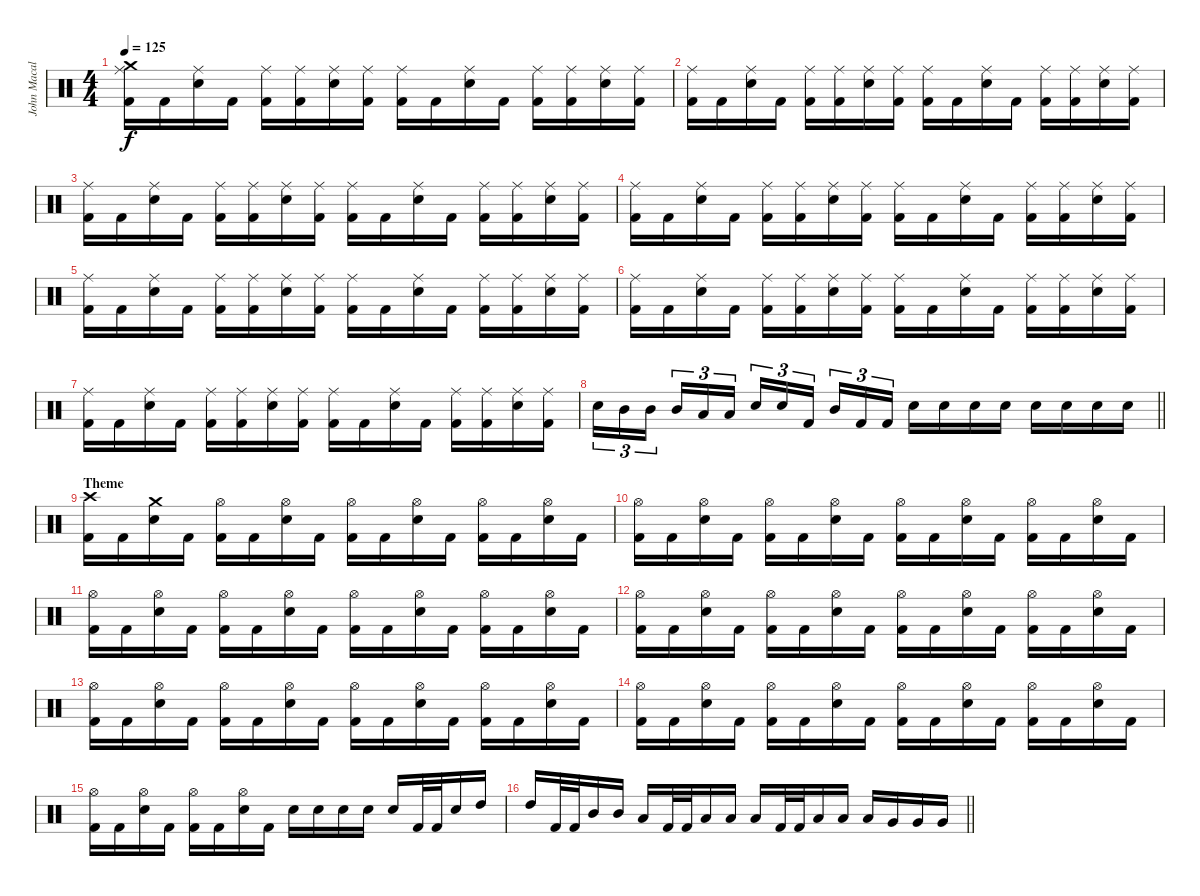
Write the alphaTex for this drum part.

\track ("John Macaluso " "John Macal") {instrument percussion}
\staff {score}
\articulation defaults
\ts (4 4)
\tempo 125
\clef neutral
\ks c
("Crash medium (hit)" "Ride (middle)" "Kick (hit) 2").16{dy f} "Kick (hit) 2".16 ("Ride (middle)" "Snare (hit) 2").16 "Kick (hit) 2".16 ("Ride (middle)" "Kick (hit) 2").16 ("Ride (middle)" "Kick (hit) 2").16 ("Ride (middle)" "Snare (hit) 2").16 ("Ride (middle)" "Kick (hit) 2").16 ("Ride (middle)" "Kick (hit) 2").16 "Kick (hit) 2".16 ("Ride (middle)" "Snare (hit) 2").16 "Kick (hit) 2".16 ("Ride (middle)" "Kick (hit) 2").16 ("Ride (middle)" "Kick (hit) 2").16 ("Ride (middle)" "Snare (hit) 2").16 ("Ride (middle)" "Kick (hit) 2").16 |
("Ride (middle)" "Kick (hit) 2").16 "Kick (hit) 2".16 ("Ride (middle)" "Snare (hit) 2").16 "Kick (hit) 2".16 ("Ride (middle)" "Kick (hit) 2").16 ("Ride (middle)" "Kick (hit) 2").16 ("Ride (middle)" "Snare (hit) 2").16 ("Ride (middle)" "Kick (hit) 2").16 ("Ride (middle)" "Kick (hit) 2").16 "Kick (hit) 2".16 ("Ride (middle)" "Snare (hit) 2").16 "Kick (hit) 2".16 ("Ride (middle)" "Kick (hit) 2").16 ("Ride (middle)" "Kick (hit) 2").16 ("Ride (middle)" "Snare (hit) 2").16 ("Ride (middle)" "Kick (hit) 2").16 |
("Ride (middle)" "Kick (hit) 2").16 "Kick (hit) 2".16 ("Ride (middle)" "Snare (hit) 2").16 "Kick (hit) 2".16 ("Ride (middle)" "Kick (hit) 2").16 ("Ride (middle)" "Kick (hit) 2").16 ("Ride (middle)" "Snare (hit) 2").16 ("Ride (middle)" "Kick (hit) 2").16 ("Ride (middle)" "Kick (hit) 2").16 "Kick (hit) 2".16 ("Ride (middle)" "Snare (hit) 2").16 "Kick (hit) 2".16 ("Ride (middle)" "Kick (hit) 2").16 ("Ride (middle)" "Kick (hit) 2").16 ("Ride (middle)" "Snare (hit) 2").16 ("Ride (middle)" "Kick (hit) 2").16 |
("Ride (middle)" "Kick (hit) 2").16 "Kick (hit) 2".16 ("Ride (middle)" "Snare (hit) 2").16 "Kick (hit) 2".16 ("Ride (middle)" "Kick (hit) 2").16 ("Ride (middle)" "Kick (hit) 2").16 ("Ride (middle)" "Snare (hit) 2").16 ("Ride (middle)" "Kick (hit) 2").16 ("Ride (middle)" "Kick (hit) 2").16 "Kick (hit) 2".16 ("Ride (middle)" "Snare (hit) 2").16 "Kick (hit) 2".16 ("Ride (middle)" "Kick (hit) 2").16 ("Ride (middle)" "Kick (hit) 2").16 ("Ride (middle)" "Snare (hit) 2").16 ("Ride (middle)" "Kick (hit) 2").16 |
("Ride (middle)" "Kick (hit) 2").16 "Kick (hit) 2".16 ("Ride (middle)" "Snare (hit) 2").16 "Kick (hit) 2".16 ("Ride (middle)" "Kick (hit) 2").16 ("Ride (middle)" "Kick (hit) 2").16 ("Ride (middle)" "Snare (hit) 2").16 ("Ride (middle)" "Kick (hit) 2").16 ("Ride (middle)" "Kick (hit) 2").16 "Kick (hit) 2".16 ("Ride (middle)" "Snare (hit) 2").16 "Kick (hit) 2".16 ("Ride (middle)" "Kick (hit) 2").16 ("Ride (middle)" "Kick (hit) 2").16 ("Ride (middle)" "Snare (hit) 2").16 ("Ride (middle)" "Kick (hit) 2").16 |
("Ride (middle)" "Kick (hit) 2").16 "Kick (hit) 2".16 ("Ride (middle)" "Snare (hit) 2").16 "Kick (hit) 2".16 ("Ride (middle)" "Kick (hit) 2").16 ("Ride (middle)" "Kick (hit) 2").16 ("Ride (middle)" "Snare (hit) 2").16 ("Ride (middle)" "Kick (hit) 2").16 ("Ride (middle)" "Kick (hit) 2").16 "Kick (hit) 2".16 ("Ride (middle)" "Snare (hit) 2").16 "Kick (hit) 2".16 ("Ride (middle)" "Kick (hit) 2").16 ("Ride (middle)" "Kick (hit) 2").16 ("Ride (middle)" "Snare (hit) 2").16 ("Ride (middle)" "Kick (hit) 2").16 |
("Ride (middle)" "Kick (hit) 2").16 "Kick (hit) 2".16 ("Ride (middle)" "Snare (hit) 2").16 "Kick (hit) 2".16 ("Ride (middle)" "Kick (hit) 2").16 ("Ride (middle)" "Kick (hit) 2").16 ("Ride (middle)" "Snare (hit) 2").16 ("Ride (middle)" "Kick (hit) 2").16 ("Ride (middle)" "Kick (hit) 2").16 "Kick (hit) 2".16 ("Ride (middle)" "Snare (hit) 2").16 "Kick (hit) 2".16 ("Ride (middle)" "Kick (hit) 2").16 ("Ride (middle)" "Kick (hit) 2").16 ("Ride (middle)" "Snare (hit) 2").16 ("Ride (middle)" "Kick (hit) 2").16 |
\barLineRight lightlight "Snare (hit) 2".16{tu (3 2)} "Mid Tom (hit)".16{tu (3 2)} "Mid Tom (hit)".16{tu (3 2) beam splitsecondary} "Mid Tom (hit)".16{tu (3 2)} "Low Tom (hit)".16{tu (3 2)} "Low Tom (hit)".16{tu (3 2)} "Snare (hit) 2".16{tu (3 2)} "Snare (hit) 2".16{tu (3 2)} "Kick (hit) 2".16{tu (3 2) beam splitsecondary} "Mid Tom (hit)".16{tu (3 2)} "Kick (hit) 2".16{tu (3 2)} "Kick (hit) 2".16{tu (3 2)} "Snare (hit) 2".16 "Snare (hit) 2".16 "Snare (hit) 2".16 "Snare (hit) 2".16 "Snare (hit) 2".16 "Snare (hit) 2".16 "Snare (hit) 2".16 "Snare (hit) 2".16
|
\section ("" "Theme")
("Crash high (hit)" "Kick (hit) 2").16 "Kick (hit) 2".16 ("Crash medium (hit)" "Snare (hit) 2").16 "Kick (hit) 2".16 ("Hi-Hat (open)" "Kick (hit) 2").16 "Kick (hit) 2".16 ("Hi-Hat (open)" "Snare (hit) 2").16 "Kick (hit) 2".16 ("Hi-Hat (open)" "Kick (hit) 2").16 "Kick (hit) 2".16 ("Hi-Hat (open)" "Snare (hit) 2").16 "Kick (hit) 2".16 ("Hi-Hat (open)" "Kick (hit) 2").16 "Kick (hit) 2".16 ("Hi-Hat (open)" "Snare (hit) 2").16 "Kick (hit) 2".16 |
("Hi-Hat (open)" "Kick (hit) 2").16 "Kick (hit) 2".16 ("Hi-Hat (open)" "Snare (hit) 2").16 "Kick (hit) 2".16 ("Hi-Hat (open)" "Kick (hit) 2").16 "Kick (hit) 2".16 ("Hi-Hat (open)" "Snare (hit) 2").16 "Kick (hit) 2".16 ("Hi-Hat (open)" "Kick (hit) 2").16 "Kick (hit) 2".16 ("Hi-Hat (open)" "Snare (hit) 2").16 "Kick (hit) 2".16 ("Hi-Hat (open)" "Kick (hit) 2").16 "Kick (hit) 2".16 ("Hi-Hat (open)" "Snare (hit) 2").16 "Kick (hit) 2".16 |
("Hi-Hat (open)" "Kick (hit) 2").16 "Kick (hit) 2".16 ("Hi-Hat (open)" "Snare (hit) 2").16 "Kick (hit) 2".16 ("Hi-Hat (open)" "Kick (hit) 2").16 "Kick (hit) 2".16 ("Hi-Hat (open)" "Snare (hit) 2").16 "Kick (hit) 2".16 ("Hi-Hat (open)" "Kick (hit) 2").16 "Kick (hit) 2".16 ("Hi-Hat (open)" "Snare (hit) 2").16 "Kick (hit) 2".16 ("Hi-Hat (open)" "Kick (hit) 2").16 "Kick (hit) 2".16 ("Hi-Hat (open)" "Snare (hit) 2").16 "Kick (hit) 2".16 |
("Hi-Hat (open)" "Kick (hit) 2").16 "Kick (hit) 2".16 ("Hi-Hat (open)" "Snare (hit) 2").16 "Kick (hit) 2".16 ("Hi-Hat (open)" "Kick (hit) 2").16 "Kick (hit) 2".16 ("Hi-Hat (open)" "Snare (hit) 2").16 "Kick (hit) 2".16 ("Hi-Hat (open)" "Kick (hit) 2").16 "Kick (hit) 2".16 ("Hi-Hat (open)" "Snare (hit) 2").16 "Kick (hit) 2".16 ("Hi-Hat (open)" "Kick (hit) 2").16 "Kick (hit) 2".16 ("Hi-Hat (open)" "Snare (hit) 2").16 "Kick (hit) 2".16 |
("Hi-Hat (open)" "Kick (hit) 2").16 "Kick (hit) 2".16 ("Hi-Hat (open)" "Snare (hit) 2").16 "Kick (hit) 2".16 ("Hi-Hat (open)" "Kick (hit) 2").16 "Kick (hit) 2".16 ("Hi-Hat (open)" "Snare (hit) 2").16 "Kick (hit) 2".16 ("Hi-Hat (open)" "Kick (hit) 2").16 "Kick (hit) 2".16 ("Hi-Hat (open)" "Snare (hit) 2").16 "Kick (hit) 2".16 ("Hi-Hat (open)" "Kick (hit) 2").16 "Kick (hit) 2".16 ("Hi-Hat (open)" "Snare (hit) 2").16 "Kick (hit) 2".16 |
("Hi-Hat (open)" "Kick (hit) 2").16 "Kick (hit) 2".16 ("Hi-Hat (open)" "Snare (hit) 2").16 "Kick (hit) 2".16 ("Hi-Hat (open)" "Kick (hit) 2").16 "Kick (hit) 2".16 ("Hi-Hat (open)" "Snare (hit) 2").16 "Kick (hit) 2".16 ("Hi-Hat (open)" "Kick (hit) 2").16 "Kick (hit) 2".16 ("Hi-Hat (open)" "Snare (hit) 2").16 "Kick (hit) 2".16 ("Hi-Hat (open)" "Kick (hit) 2").16 "Kick (hit) 2".16 ("Hi-Hat (open)" "Snare (hit) 2").16 "Kick (hit) 2".16 |
("Hi-Hat (open)" "Kick (hit) 2").16 "Kick (hit) 2".16 ("Hi-Hat (open)" "Snare (hit) 2").16 "Kick (hit) 2".16 ("Hi-Hat (open)" "Kick (hit) 2").16 "Kick (hit) 2".16 ("Hi-Hat (open)" "Snare (hit) 2").16 "Kick (hit) 2".16 "Snare (hit) 2".16 "Snare (hit) 2".16 "Snare (hit) 2".16 "Snare (hit) 2".16 "Snare (hit) 2".16 "Kick (hit) 2".32 "Kick (hit) 2".32 "Snare (hit) 2".16 "High Tom (hit)".16 |
\barLineRight lightlight "High Tom (hit)".16 "Kick (hit) 2".32 "Kick (hit) 2".32 "Mid Tom (hit)".16 "Mid Tom (hit)".16 "Low Tom (hit)".16 "Kick (hit) 2".32 "Kick (hit) 2".32 "Low Tom (hit)".16 "Low Tom (hit)".16 "Low Tom (hit)".16 "Kick (hit) 2".32 "Kick (hit) 2".32 "Low Tom (hit)".16 "Low Tom (hit)".16 "Low Tom (hit)".16 "Very Low Tom (hit)".16 "Very Low Tom (hit)".16 "Very Low Tom (hit)".16
